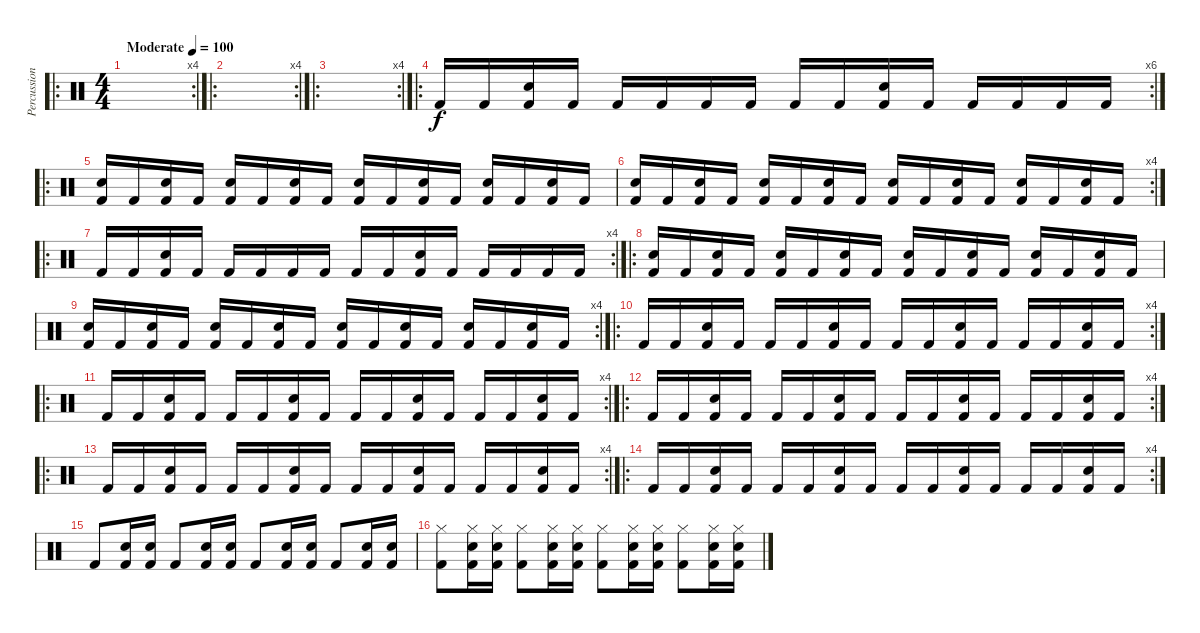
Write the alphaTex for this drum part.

\track ("Percussion" "Percussion") {instrument percussion}
\staff {score}
\articulation defaults
\ro
\rc 4
\ts (4 4)
\tempo (100 "Moderate")
\clef neutral
\ks c
|
\ro
\rc 4
|
\ro
\rc 4
|
\ro
\rc 6 "Kick (hit) 2".16 "Kick (hit) 2".16
("Snare (hit) 2" "Kick (hit) 2").16 "Kick (hit) 2".16 "Kick (hit) 2".16 "Kick (hit) 2".16 "Kick (hit) 2".16 "Kick (hit) 2".16 "Kick (hit) 2".16 "Kick (hit) 2".16 ("Snare (hit) 2" "Kick (hit) 2").16 "Kick (hit) 2".16 "Kick (hit) 2".16 "Kick (hit) 2".16 "Kick (hit) 2".16 "Kick (hit) 2".16 |
\ro
("Snare (hit) 2" "Kick (hit) 2").16 "Kick (hit) 2".16 ("Snare (hit) 2" "Kick (hit) 2").16 "Kick (hit) 2".16 ("Snare (hit) 2" "Kick (hit) 2").16 "Kick (hit) 2".16 ("Snare (hit) 2" "Kick (hit) 2").16 "Kick (hit) 2".16 ("Snare (hit) 2" "Kick (hit) 2").16 "Kick (hit) 2".16 ("Snare (hit) 2" "Kick (hit) 2").16 "Kick (hit) 2".16 ("Snare (hit) 2" "Kick (hit) 2").16 "Kick (hit) 2".16 ("Snare (hit) 2" "Kick (hit) 2").16 "Kick (hit) 2".16 |
\rc 4
("Snare (hit) 2" "Kick (hit) 2").16 "Kick (hit) 2".16 ("Snare (hit) 2" "Kick (hit) 2").16 "Kick (hit) 2".16 ("Snare (hit) 2" "Kick (hit) 2").16 "Kick (hit) 2".16 ("Snare (hit) 2" "Kick (hit) 2").16 "Kick (hit) 2".16 ("Snare (hit) 2" "Kick (hit) 2").16 "Kick (hit) 2".16 ("Snare (hit) 2" "Kick (hit) 2").16 "Kick (hit) 2".16 ("Snare (hit) 2" "Kick (hit) 2").16 "Kick (hit) 2".16 ("Snare (hit) 2" "Kick (hit) 2").16 "Kick (hit) 2".16 |
\ro
\rc 4 "Kick (hit) 2".16 "Kick (hit) 2".16
("Snare (hit) 2" "Kick (hit) 2").16 "Kick (hit) 2".16 "Kick (hit) 2".16 "Kick (hit) 2".16 "Kick (hit) 2".16 "Kick (hit) 2".16 "Kick (hit) 2".16 "Kick (hit) 2".16 ("Snare (hit) 2" "Kick (hit) 2").16 "Kick (hit) 2".16 "Kick (hit) 2".16 "Kick (hit) 2".16 "Kick (hit) 2".16 "Kick (hit) 2".16 |
\ro
("Snare (hit) 2" "Kick (hit) 2").16 "Kick (hit) 2".16 ("Snare (hit) 2" "Kick (hit) 2").16 "Kick (hit) 2".16 ("Snare (hit) 2" "Kick (hit) 2").16 "Kick (hit) 2".16 ("Snare (hit) 2" "Kick (hit) 2").16 "Kick (hit) 2".16 ("Snare (hit) 2" "Kick (hit) 2").16 "Kick (hit) 2".16 ("Snare (hit) 2" "Kick (hit) 2").16 "Kick (hit) 2".16 ("Snare (hit) 2" "Kick (hit) 2").16 "Kick (hit) 2".16 ("Snare (hit) 2" "Kick (hit) 2").16 "Kick (hit) 2".16 |
\rc 4
("Snare (hit) 2" "Kick (hit) 2").16 "Kick (hit) 2".16 ("Snare (hit) 2" "Kick (hit) 2").16 "Kick (hit) 2".16 ("Snare (hit) 2" "Kick (hit) 2").16 "Kick (hit) 2".16 ("Snare (hit) 2" "Kick (hit) 2").16 "Kick (hit) 2".16 ("Snare (hit) 2" "Kick (hit) 2").16 "Kick (hit) 2".16 ("Snare (hit) 2" "Kick (hit) 2").16 "Kick (hit) 2".16 ("Snare (hit) 2" "Kick (hit) 2").16 "Kick (hit) 2".16 ("Snare (hit) 2" "Kick (hit) 2").16 "Kick (hit) 2".16 |
\ro
\rc 4 "Kick (hit) 2".16 "Kick (hit) 2".16
("Snare (hit) 2" "Kick (hit) 2").16 "Kick (hit) 2".16 "Kick (hit) 2".16 "Kick (hit) 2".16 ("Snare (hit) 2" "Kick (hit) 2").16 "Kick (hit) 2".16 "Kick (hit) 2".16 "Kick (hit) 2".16 ("Snare (hit) 2" "Kick (hit) 2").16 "Kick (hit) 2".16 "Kick (hit) 2".16 "Kick (hit) 2".16 ("Snare (hit) 2" "Kick (hit) 2").16 "Kick (hit) 2".16 |
\ro
\rc 4 "Kick (hit) 2".16 "Kick (hit) 2".16
("Snare (hit) 2" "Kick (hit) 2").16 "Kick (hit) 2".16 "Kick (hit) 2".16 "Kick (hit) 2".16 ("Snare (hit) 2" "Kick (hit) 2").16 "Kick (hit) 2".16 "Kick (hit) 2".16 "Kick (hit) 2".16 ("Snare (hit) 2" "Kick (hit) 2").16 "Kick (hit) 2".16 "Kick (hit) 2".16 "Kick (hit) 2".16 ("Snare (hit) 2" "Kick (hit) 2").16 "Kick (hit) 2".16 |
\ro
\rc 4 "Kick (hit) 2".16 "Kick (hit) 2".16
("Snare (hit) 2" "Kick (hit) 2").16 "Kick (hit) 2".16 "Kick (hit) 2".16 "Kick (hit) 2".16 ("Snare (hit) 2" "Kick (hit) 2").16 "Kick (hit) 2".16 "Kick (hit) 2".16 "Kick (hit) 2".16 ("Snare (hit) 2" "Kick (hit) 2").16 "Kick (hit) 2".16 "Kick (hit) 2".16 "Kick (hit) 2".16 ("Snare (hit) 2" "Kick (hit) 2").16 "Kick (hit) 2".16 |
\ro
\rc 4 "Kick (hit) 2".16 "Kick (hit) 2".16
("Snare (hit) 2" "Kick (hit) 2").16 "Kick (hit) 2".16 "Kick (hit) 2".16 "Kick (hit) 2".16 ("Snare (hit) 2" "Kick (hit) 2").16 "Kick (hit) 2".16 "Kick (hit) 2".16 "Kick (hit) 2".16 ("Snare (hit) 2" "Kick (hit) 2").16 "Kick (hit) 2".16 "Kick (hit) 2".16 "Kick (hit) 2".16 ("Snare (hit) 2" "Kick (hit) 2").16 "Kick (hit) 2".16 |
\ro
\rc 4 "Kick (hit) 2".16 "Kick (hit) 2".16
("Snare (hit) 2" "Kick (hit) 2").16 "Kick (hit) 2".16 "Kick (hit) 2".16 "Kick (hit) 2".16 ("Snare (hit) 2" "Kick (hit) 2").16 "Kick (hit) 2".16 "Kick (hit) 2".16 "Kick (hit) 2".16 ("Snare (hit) 2" "Kick (hit) 2").16 "Kick (hit) 2".16 "Kick (hit) 2".16 "Kick (hit) 2".16 ("Snare (hit) 2" "Kick (hit) 2").16 "Kick (hit) 2".16 |
"Kick (hit) 2".8 ("Snare (hit) 2" "Kick (hit) 2").16 ("Snare (hit) 2" "Kick (hit) 2").16 "Kick (hit) 2".8 ("Snare (hit) 2" "Kick (hit) 2").16 ("Snare (hit) 2" "Kick (hit) 2").16 "Kick (hit) 2".8 ("Snare (hit) 2" "Kick (hit) 2").16 ("Snare (hit) 2" "Kick (hit) 2").16 "Kick (hit) 2".8 ("Snare (hit) 2" "Kick (hit) 2").16 ("Snare (hit) 2" "Kick (hit) 2").16 |
("Hi-Hat (closed)" "Kick (hit) 2").8 ("Hi-Hat (closed)" "Snare (hit) 2" "Kick (hit) 2").16 ("Hi-Hat (closed)" "Snare (hit) 2" "Kick (hit) 2").16 ("Hi-Hat (closed)" "Kick (hit) 2").8 ("Hi-Hat (closed)" "Snare (hit) 2" "Kick (hit) 2").16 ("Hi-Hat (closed)" "Snare (hit) 2" "Kick (hit) 2").16 ("Hi-Hat (closed)" "Kick (hit) 2").8 ("Hi-Hat (closed)" "Snare (hit) 2" "Kick (hit) 2").16 ("Hi-Hat (closed)" "Snare (hit) 2" "Kick (hit) 2").16 ("Hi-Hat (closed)" "Kick (hit) 2").8 ("Hi-Hat (closed)" "Snare (hit) 2" "Kick (hit) 2").16 ("Hi-Hat (closed)" "Snare (hit) 2" "Kick (hit) 2").16
